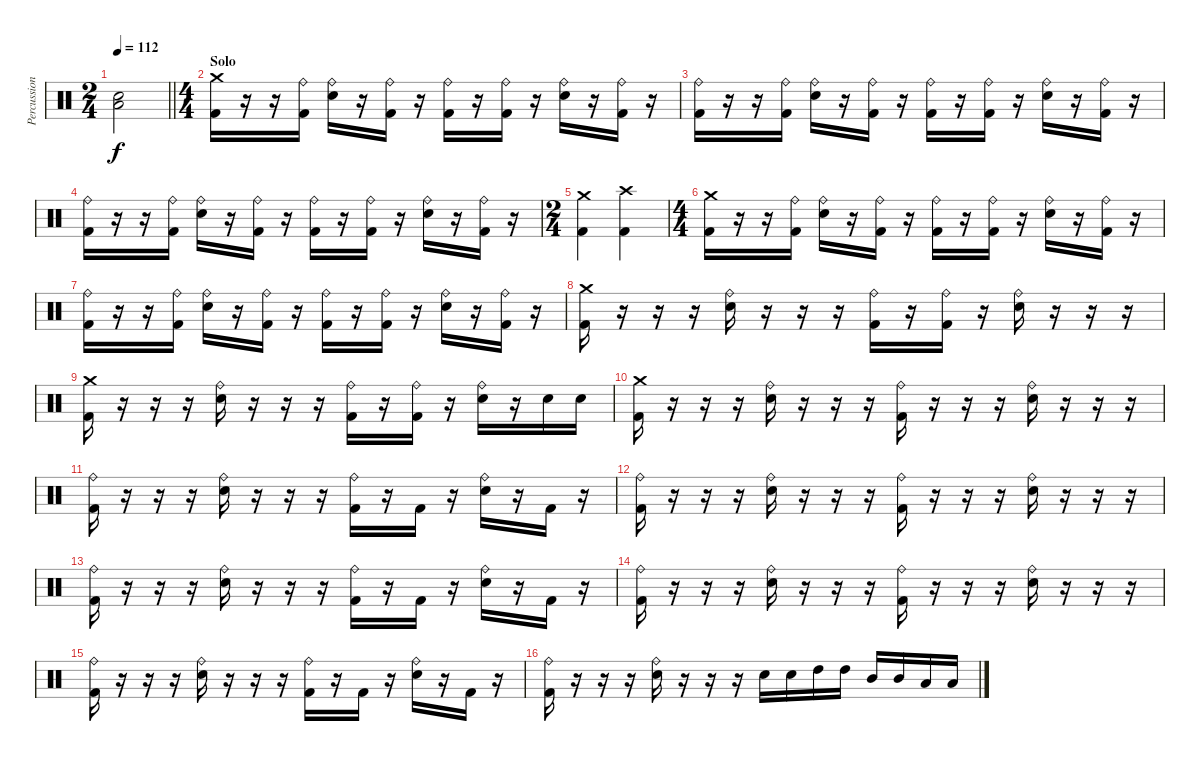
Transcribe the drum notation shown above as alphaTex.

\track ("Percussioni" "Percussion") {instrument percussion}
\staff {score}
\articulation defaults
\ts (2 4)
\tempo 112
\clef neutral
\barLineRight lightlight
\ks c
("Low Floor Tom (hit)" "Snare (hit) 2").2{dy f} |
\ts (4 4)
\section ("" "Solo")
("Kick (hit) 2" "Crash medium (hit)").16 r.16 r.16 ("Kick (hit) 2" "Ride (bell)").16 ("Snare (hit) 2" "Ride (bell)").16 r.16 ("Kick (hit) 2" "Ride (bell)").16 r.16 ("Kick (hit) 2" "Ride (bell)").16 r.16 ("Kick (hit) 2" "Ride (bell)").16 r.16 ("Snare (hit) 2" "Ride (bell)").16 r.16 ("Kick (hit) 2" "Ride (bell)").16 r.16 |
("Kick (hit) 2" "Ride (bell)").16 r.16 r.16 ("Kick (hit) 2" "Ride (bell)").16 ("Snare (hit) 2" "Ride (bell)").16 r.16 ("Kick (hit) 2" "Ride (bell)").16 r.16 ("Kick (hit) 2" "Ride (bell)").16 r.16 ("Kick (hit) 2" "Ride (bell)").16 r.16 ("Snare (hit) 2" "Ride (bell)").16 r.16 ("Kick (hit) 2" "Ride (bell)").16 r.16 |
("Kick (hit) 2" "Ride (bell)").16 r.16 r.16 ("Kick (hit) 2" "Ride (bell)").16 ("Snare (hit) 2" "Ride (bell)").16 r.16 ("Kick (hit) 2" "Ride (bell)").16 r.16 ("Kick (hit) 2" "Ride (bell)").16 r.16 ("Kick (hit) 2" "Ride (bell)").16 r.16 ("Snare (hit) 2" "Ride (bell)").16 r.16 ("Kick (hit) 2" "Ride (bell)").16 r.16 |
\ts (2 4)
("Kick (hit) 2" "Crash medium (hit)").4 ("Kick (hit) 2" "Crash high (hit)").4 |
\ts (4 4)
("Kick (hit) 2" "Crash medium (hit)").16 r.16 r.16 ("Kick (hit) 2" "Ride (bell)").16 ("Snare (hit) 2" "Ride (bell)").16 r.16 ("Kick (hit) 2" "Ride (bell)").16 r.16 ("Kick (hit) 2" "Ride (bell)").16 r.16 ("Kick (hit) 2" "Ride (bell)").16 r.16 ("Snare (hit) 2" "Ride (bell)").16 r.16 ("Kick (hit) 2" "Ride (bell)").16 r.16 |
("Kick (hit) 2" "Ride (bell)").16 r.16 r.16 ("Kick (hit) 2" "Ride (bell)").16 ("Snare (hit) 2" "Ride (bell)").16 r.16 ("Kick (hit) 2" "Ride (bell)").16 r.16 ("Kick (hit) 2" "Ride (bell)").16 r.16 ("Kick (hit) 2" "Ride (bell)").16 r.16 ("Snare (hit) 2" "Ride (bell)").16 r.16 ("Kick (hit) 2" "Ride (bell)").16 r.16 |
("Kick (hit) 2" "Crash medium (hit)").16 r.16 r.16 r.16 ("Snare (hit) 2" "Ride (bell)").16 r.16 r.16 r.16 ("Kick (hit) 2" "Ride (bell)").16 r.16 ("Kick (hit) 2" "Ride (bell)").16 r.16 ("Snare (hit) 2" "Ride (bell)").16 r.16 r.16 r.16 |
("Kick (hit) 2" "Crash medium (hit)").16 r.16 r.16 r.16 ("Snare (hit) 2" "Ride (bell)").16 r.16 r.16 r.16 ("Kick (hit) 2" "Ride (bell)").16 r.16 ("Kick (hit) 2" "Ride (bell)").16 r.16 ("Snare (hit) 2" "Ride (bell)").16 r.16 "Snare (hit) 2".16 "Snare (hit) 2".16 |
("Kick (hit) 2" "Crash medium (hit)").16 r.16 r.16 r.16 ("Snare (hit) 2" "Ride (bell)").16 r.16 r.16 r.16 ("Kick (hit) 2" "Ride (bell)").16 r.16 r.16 r.16 ("Snare (hit) 2" "Ride (bell)").16 r.16 r.16 r.16 |
("Kick (hit) 2" "Ride (bell)").16 r.16 r.16 r.16 ("Snare (hit) 2" "Ride (bell)").16 r.16 r.16 r.16 ("Kick (hit) 2" "Ride (bell)").16 r.16 "Kick (hit) 2".16 r.16 ("Snare (hit) 2" "Ride (bell)").16 r.16 "Kick (hit) 2".16 r.16 |
("Kick (hit) 2" "Ride (bell)").16 r.16 r.16 r.16 ("Snare (hit) 2" "Ride (bell)").16 r.16 r.16 r.16 ("Kick (hit) 2" "Ride (bell)").16 r.16 r.16 r.16 ("Snare (hit) 2" "Ride (bell)").16 r.16 r.16 r.16 |
("Kick (hit) 2" "Ride (bell)").16 r.16 r.16 r.16 ("Snare (hit) 2" "Ride (bell)").16 r.16 r.16 r.16 ("Kick (hit) 2" "Ride (bell)").16 r.16 "Kick (hit) 2".16 r.16 ("Snare (hit) 2" "Ride (bell)").16 r.16 "Kick (hit) 2".16 r.16 |
("Kick (hit) 2" "Ride (bell)").16 r.16 r.16 r.16 ("Snare (hit) 2" "Ride (bell)").16 r.16 r.16 r.16 ("Kick (hit) 2" "Ride (bell)").16 r.16 r.16 r.16 ("Snare (hit) 2" "Ride (bell)").16 r.16 r.16 r.16 |
("Kick (hit) 2" "Ride (bell)").16 r.16 r.16 r.16 ("Snare (hit) 2" "Ride (bell)").16 r.16 r.16 r.16 ("Kick (hit) 2" "Ride (bell)").16 r.16 "Kick (hit) 2".16 r.16 ("Snare (hit) 2" "Ride (bell)").16 r.16 "Kick (hit) 2".16 r.16 |
("Kick (hit) 2" "Ride (bell)").16 r.16 r.16 r.16 ("Snare (hit) 2" "Ride (bell)").16 r.16 r.16 r.16 "Snare (hit) 2".16 "Snare (hit) 2".16 "High Tom (hit)".16 "High Tom (hit)".16 "Mid Tom (hit)".16 "Mid Tom (hit)".16 "Low Tom (hit)".16 "Low Tom (hit)".16
